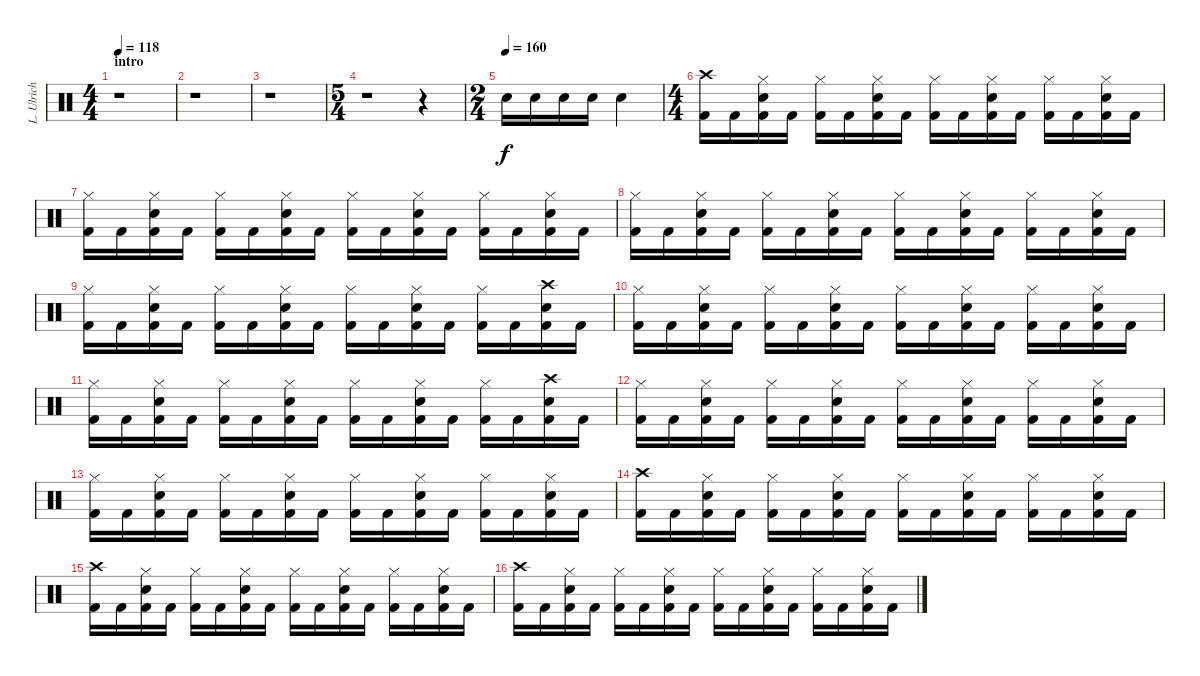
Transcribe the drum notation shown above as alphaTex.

\track ("L. Ulrich - Drums" "L. Ulrich ") {instrument percussion}
\staff {score}
\articulation defaults
\ts (4 4)
\section ("" "intro")
\tempo 118
\clef neutral
\ks c
r.1{dy f} |
r.1 |
r.1 |
\ts (5 4)
r.1 r.4 |
\ts (2 4)
\tempo (160)
"Snare (hit) 2".16 "Snare (hit) 2".16 "Snare (hit) 2".16 "Snare (hit) 2".16 "Snare (hit) 2".4 |
\ts (4 4)
("Crash high (hit)" "Kick (hit) 2").16 "Kick (hit) 2".16 ("Hi-Hat (closed)" "Snare (hit) 2" "Kick (hit) 2").16 "Kick (hit) 2".16 ("Hi-Hat (closed)" "Kick (hit) 2").16 "Kick (hit) 2".16 ("Hi-Hat (closed)" "Snare (hit) 2" "Kick (hit) 2").16 "Kick (hit) 2".16 ("Hi-Hat (closed)" "Kick (hit) 2").16 "Kick (hit) 2".16 ("Hi-Hat (closed)" "Snare (hit) 2" "Kick (hit) 2").16 "Kick (hit) 2".16 ("Hi-Hat (closed)" "Kick (hit) 2").16 "Kick (hit) 2".16 ("Hi-Hat (closed)" "Snare (hit) 2" "Kick (hit) 2").16 "Kick (hit) 2".16 |
("Hi-Hat (closed)" "Kick (hit) 2").16 "Kick (hit) 2".16 ("Hi-Hat (closed)" "Snare (hit) 2" "Kick (hit) 2").16 "Kick (hit) 2".16 ("Hi-Hat (closed)" "Kick (hit) 2").16 "Kick (hit) 2".16 ("Hi-Hat (closed)" "Snare (hit) 2" "Kick (hit) 2").16 "Kick (hit) 2".16 ("Hi-Hat (closed)" "Kick (hit) 2").16 "Kick (hit) 2".16 ("Hi-Hat (closed)" "Snare (hit) 2" "Kick (hit) 2").16 "Kick (hit) 2".16 ("Hi-Hat (closed)" "Kick (hit) 2").16 "Kick (hit) 2".16 ("Hi-Hat (closed)" "Snare (hit) 2" "Kick (hit) 2").16 "Kick (hit) 2".16 |
("Hi-Hat (closed)" "Kick (hit) 2").16 "Kick (hit) 2".16 ("Hi-Hat (closed)" "Snare (hit) 2" "Kick (hit) 2").16 "Kick (hit) 2".16 ("Hi-Hat (closed)" "Kick (hit) 2").16 "Kick (hit) 2".16 ("Hi-Hat (closed)" "Snare (hit) 2" "Kick (hit) 2").16 "Kick (hit) 2".16 ("Hi-Hat (closed)" "Kick (hit) 2").16 "Kick (hit) 2".16 ("Hi-Hat (closed)" "Snare (hit) 2" "Kick (hit) 2").16 "Kick (hit) 2".16 ("Hi-Hat (closed)" "Kick (hit) 2").16 "Kick (hit) 2".16 ("Hi-Hat (closed)" "Snare (hit) 2" "Kick (hit) 2").16 "Kick (hit) 2".16 |
("Hi-Hat (closed)" "Kick (hit) 2").16 "Kick (hit) 2".16 ("Hi-Hat (closed)" "Snare (hit) 2" "Kick (hit) 2").16 "Kick (hit) 2".16 ("Hi-Hat (closed)" "Kick (hit) 2").16 "Kick (hit) 2".16 ("Hi-Hat (closed)" "Snare (hit) 2" "Kick (hit) 2").16 "Kick (hit) 2".16 ("Hi-Hat (closed)" "Kick (hit) 2").16 "Kick (hit) 2".16 ("Hi-Hat (closed)" "Snare (hit) 2" "Kick (hit) 2").16 "Kick (hit) 2".16 ("Hi-Hat (closed)" "Kick (hit) 2").16 "Kick (hit) 2".16 ("Crash high (hit)" "Snare (hit) 2" "Kick (hit) 2").16 "Kick (hit) 2".16 |
("Hi-Hat (closed)" "Kick (hit) 2").16 "Kick (hit) 2".16 ("Hi-Hat (closed)" "Snare (hit) 2" "Kick (hit) 2").16 "Kick (hit) 2".16 ("Hi-Hat (closed)" "Kick (hit) 2").16 "Kick (hit) 2".16 ("Hi-Hat (closed)" "Snare (hit) 2" "Kick (hit) 2").16 "Kick (hit) 2".16 ("Hi-Hat (closed)" "Kick (hit) 2").16 "Kick (hit) 2".16 ("Hi-Hat (closed)" "Snare (hit) 2" "Kick (hit) 2").16 "Kick (hit) 2".16 ("Hi-Hat (closed)" "Kick (hit) 2").16 "Kick (hit) 2".16 ("Hi-Hat (closed)" "Snare (hit) 2" "Kick (hit) 2").16 "Kick (hit) 2".16 |
("Hi-Hat (closed)" "Kick (hit) 2").16 "Kick (hit) 2".16 ("Hi-Hat (closed)" "Snare (hit) 2" "Kick (hit) 2").16 "Kick (hit) 2".16 ("Hi-Hat (closed)" "Kick (hit) 2").16 "Kick (hit) 2".16 ("Hi-Hat (closed)" "Snare (hit) 2" "Kick (hit) 2").16 "Kick (hit) 2".16 ("Hi-Hat (closed)" "Kick (hit) 2").16 "Kick (hit) 2".16 ("Hi-Hat (closed)" "Snare (hit) 2" "Kick (hit) 2").16 "Kick (hit) 2".16 ("Hi-Hat (closed)" "Kick (hit) 2").16 "Kick (hit) 2".16 ("Crash high (hit)" "Snare (hit) 2" "Kick (hit) 2").16 "Kick (hit) 2".16 |
("Hi-Hat (closed)" "Kick (hit) 2").16 "Kick (hit) 2".16 ("Hi-Hat (closed)" "Snare (hit) 2" "Kick (hit) 2").16 "Kick (hit) 2".16 ("Hi-Hat (closed)" "Kick (hit) 2").16 "Kick (hit) 2".16 ("Hi-Hat (closed)" "Snare (hit) 2" "Kick (hit) 2").16 "Kick (hit) 2".16 ("Hi-Hat (closed)" "Kick (hit) 2").16 "Kick (hit) 2".16 ("Hi-Hat (closed)" "Snare (hit) 2" "Kick (hit) 2").16 "Kick (hit) 2".16 ("Hi-Hat (closed)" "Kick (hit) 2").16 "Kick (hit) 2".16 ("Hi-Hat (closed)" "Snare (hit) 2" "Kick (hit) 2").16 "Kick (hit) 2".16 |
("Hi-Hat (closed)" "Kick (hit) 2").16 "Kick (hit) 2".16 ("Hi-Hat (closed)" "Snare (hit) 2" "Kick (hit) 2").16 "Kick (hit) 2".16 ("Hi-Hat (closed)" "Kick (hit) 2").16 "Kick (hit) 2".16 ("Hi-Hat (closed)" "Snare (hit) 2" "Kick (hit) 2").16 "Kick (hit) 2".16 ("Hi-Hat (closed)" "Kick (hit) 2").16 "Kick (hit) 2".16 ("Hi-Hat (closed)" "Snare (hit) 2" "Kick (hit) 2").16 "Kick (hit) 2".16 ("Hi-Hat (closed)" "Kick (hit) 2").16 "Kick (hit) 2".16 ("Hi-Hat (closed)" "Snare (hit) 2" "Kick (hit) 2").16 "Kick (hit) 2".16 |
("Crash high (hit)" "Kick (hit) 2").16 "Kick (hit) 2".16 ("Hi-Hat (closed)" "Snare (hit) 2" "Kick (hit) 2").16 "Kick (hit) 2".16 ("Hi-Hat (closed)" "Kick (hit) 2").16 "Kick (hit) 2".16 ("Hi-Hat (closed)" "Snare (hit) 2" "Kick (hit) 2").16 "Kick (hit) 2".16 ("Hi-Hat (closed)" "Kick (hit) 2").16 "Kick (hit) 2".16 ("Hi-Hat (closed)" "Snare (hit) 2" "Kick (hit) 2").16 "Kick (hit) 2".16 ("Hi-Hat (closed)" "Kick (hit) 2").16 "Kick (hit) 2".16 ("Hi-Hat (closed)" "Snare (hit) 2" "Kick (hit) 2").16 "Kick (hit) 2".16 |
("Crash high (hit)" "Kick (hit) 2").16 "Kick (hit) 2".16 ("Hi-Hat (closed)" "Snare (hit) 2" "Kick (hit) 2").16 "Kick (hit) 2".16 ("Hi-Hat (closed)" "Kick (hit) 2").16 "Kick (hit) 2".16 ("Hi-Hat (closed)" "Snare (hit) 2" "Kick (hit) 2").16 "Kick (hit) 2".16 ("Hi-Hat (closed)" "Kick (hit) 2").16 "Kick (hit) 2".16 ("Hi-Hat (closed)" "Snare (hit) 2" "Kick (hit) 2").16 "Kick (hit) 2".16 ("Hi-Hat (closed)" "Kick (hit) 2").16 "Kick (hit) 2".16 ("Hi-Hat (closed)" "Snare (hit) 2" "Kick (hit) 2").16 "Kick (hit) 2".16 |
("Crash high (hit)" "Kick (hit) 2").16 "Kick (hit) 2".16 ("Hi-Hat (closed)" "Snare (hit) 2" "Kick (hit) 2").16 "Kick (hit) 2".16 ("Hi-Hat (closed)" "Kick (hit) 2").16 "Kick (hit) 2".16 ("Hi-Hat (closed)" "Snare (hit) 2" "Kick (hit) 2").16 "Kick (hit) 2".16 ("Hi-Hat (closed)" "Kick (hit) 2").16 "Kick (hit) 2".16 ("Hi-Hat (closed)" "Snare (hit) 2" "Kick (hit) 2").16 "Kick (hit) 2".16 ("Hi-Hat (closed)" "Kick (hit) 2").16 "Kick (hit) 2".16 ("Hi-Hat (closed)" "Snare (hit) 2" "Kick (hit) 2").16 "Kick (hit) 2".16
